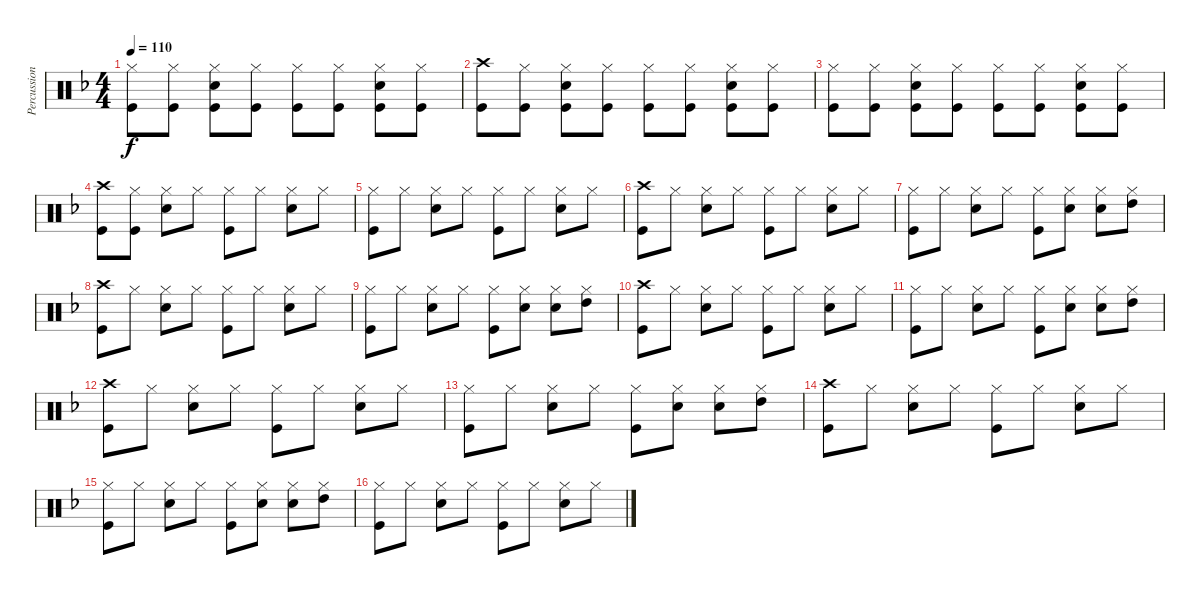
\track ("Percussion" "Percussion") {instrument percussion}
\staff {score}
\articulation defaults
\ts (4 4)
\tempo 110
\clef neutral
\ks dminor
("Hi-Hat (closed)" "Kick (hit)").8{dy f} ("Hi-Hat (closed)" "Kick (hit)").8 ("Hi-Hat (closed)" "Snare (hit) 2" "Kick (hit)").8 ("Hi-Hat (closed)" "Kick (hit)").8 ("Hi-Hat (closed)" "Kick (hit)").8 ("Hi-Hat (closed)" "Kick (hit)").8 ("Hi-Hat (closed)" "Snare (hit) 2" "Kick (hit)").8 ("Hi-Hat (closed)" "Kick (hit)").8 |
("Crash high (hit)" "Kick (hit)").8 ("Hi-Hat (closed)" "Kick (hit)").8 ("Hi-Hat (closed)" "Snare (hit) 2" "Kick (hit)").8 ("Hi-Hat (closed)" "Kick (hit)").8 ("Hi-Hat (closed)" "Kick (hit)").8 ("Hi-Hat (closed)" "Kick (hit)").8 ("Hi-Hat (closed)" "Snare (hit) 2" "Kick (hit)").8 ("Hi-Hat (closed)" "Kick (hit)").8 |
("Hi-Hat (closed)" "Kick (hit)").8 ("Hi-Hat (closed)" "Kick (hit)").8 ("Hi-Hat (closed)" "Snare (hit) 2" "Kick (hit)").8 ("Hi-Hat (closed)" "Kick (hit)").8 ("Hi-Hat (closed)" "Kick (hit)").8 ("Hi-Hat (closed)" "Kick (hit)").8 ("Hi-Hat (closed)" "Snare (hit) 2" "Kick (hit)").8 ("Hi-Hat (closed)" "Kick (hit)").8 |
("Crash high (hit)" "Kick (hit)").8 ("Hi-Hat (closed)" "Kick (hit)").8 ("Hi-Hat (closed)" "Snare (hit) 2").8 "Hi-Hat (closed)".8 ("Hi-Hat (closed)" "Kick (hit)").8 "Hi-Hat (closed)".8 ("Hi-Hat (closed)" "Snare (hit) 2").8 "Hi-Hat (closed)".8 |
("Hi-Hat (closed)" "Kick (hit)").8 "Hi-Hat (closed)".8 ("Hi-Hat (closed)" "Snare (hit) 2").8 "Hi-Hat (closed)".8 ("Hi-Hat (closed)" "Kick (hit)").8 "Hi-Hat (closed)".8 ("Hi-Hat (closed)" "Snare (hit) 2").8 "Hi-Hat (closed)".8 |
("Crash high (hit)" "Kick (hit)").8 "Hi-Hat (closed)".8 ("Hi-Hat (closed)" "Snare (hit) 2").8 "Hi-Hat (closed)".8 ("Hi-Hat (closed)" "Kick (hit)").8 "Hi-Hat (closed)".8 ("Hi-Hat (closed)" "Snare (hit) 2").8 "Hi-Hat (closed)".8 |
("Hi-Hat (closed)" "Kick (hit)").8 "Hi-Hat (closed)".8 ("Hi-Hat (closed)" "Snare (hit) 2").8 "Hi-Hat (closed)".8 ("Hi-Hat (closed)" "Kick (hit)").8 ("Hi-Hat (closed)" "Snare (hit) 2").8 ("Hi-Hat (closed)" "Snare (hit) 2").8 ("Hi-Hat (closed)" "High Tom (hit)").8 |
("Crash high (hit)" "Kick (hit)").8 "Hi-Hat (closed)".8 ("Hi-Hat (closed)" "Snare (hit) 2").8 "Hi-Hat (closed)".8 ("Hi-Hat (closed)" "Kick (hit)").8 "Hi-Hat (closed)".8 ("Hi-Hat (closed)" "Snare (hit) 2").8 "Hi-Hat (closed)".8 |
("Hi-Hat (closed)" "Kick (hit)").8 "Hi-Hat (closed)".8 ("Hi-Hat (closed)" "Snare (hit) 2").8 "Hi-Hat (closed)".8 ("Hi-Hat (closed)" "Kick (hit)").8 ("Hi-Hat (closed)" "Snare (hit) 2").8 ("Hi-Hat (closed)" "Snare (hit) 2").8 ("Hi-Hat (closed)" "High Tom (hit)").8 |
("Crash high (hit)" "Kick (hit)").8 "Hi-Hat (closed)".8 ("Hi-Hat (closed)" "Snare (hit) 2").8 "Hi-Hat (closed)".8 ("Hi-Hat (closed)" "Kick (hit)").8 "Hi-Hat (closed)".8 ("Hi-Hat (closed)" "Snare (hit) 2").8 "Hi-Hat (closed)".8 |
("Hi-Hat (closed)" "Kick (hit)").8 "Hi-Hat (closed)".8 ("Hi-Hat (closed)" "Snare (hit) 2").8 "Hi-Hat (closed)".8 ("Hi-Hat (closed)" "Kick (hit)").8 ("Hi-Hat (closed)" "Snare (hit) 2").8 ("Hi-Hat (closed)" "Snare (hit) 2").8 ("Hi-Hat (closed)" "High Tom (hit)").8 |
("Crash high (hit)" "Kick (hit)").8 "Hi-Hat (closed)".8 ("Hi-Hat (closed)" "Snare (hit) 2").8 "Hi-Hat (closed)".8 ("Hi-Hat (closed)" "Kick (hit)").8 "Hi-Hat (closed)".8 ("Hi-Hat (closed)" "Snare (hit) 2").8 "Hi-Hat (closed)".8 |
("Hi-Hat (closed)" "Kick (hit)").8 "Hi-Hat (closed)".8 ("Hi-Hat (closed)" "Snare (hit) 2").8 "Hi-Hat (closed)".8 ("Hi-Hat (closed)" "Kick (hit)").8 ("Hi-Hat (closed)" "Snare (hit) 2").8 ("Hi-Hat (closed)" "Snare (hit) 2").8 ("Hi-Hat (closed)" "High Tom (hit)").8 |
("Crash high (hit)" "Kick (hit)").8 "Hi-Hat (closed)".8 ("Hi-Hat (closed)" "Snare (hit) 2").8 "Hi-Hat (closed)".8 ("Hi-Hat (closed)" "Kick (hit)").8 "Hi-Hat (closed)".8 ("Hi-Hat (closed)" "Snare (hit) 2").8 "Hi-Hat (closed)".8 |
("Hi-Hat (closed)" "Kick (hit)").8 "Hi-Hat (closed)".8 ("Hi-Hat (closed)" "Snare (hit) 2").8 "Hi-Hat (closed)".8 ("Hi-Hat (closed)" "Kick (hit)").8 ("Hi-Hat (closed)" "Snare (hit) 2").8 ("Hi-Hat (closed)" "Snare (hit) 2").8 ("Hi-Hat (closed)" "High Tom (hit)").8 |
("Hi-Hat (closed)" "Kick (hit)").8 "Hi-Hat (closed)".8 ("Hi-Hat (closed)" "Snare (hit) 2").8 "Hi-Hat (closed)".8 ("Hi-Hat (closed)" "Kick (hit)").8 "Hi-Hat (closed)".8 ("Hi-Hat (closed)" "Snare (hit) 2").8 "Hi-Hat (closed)".8
